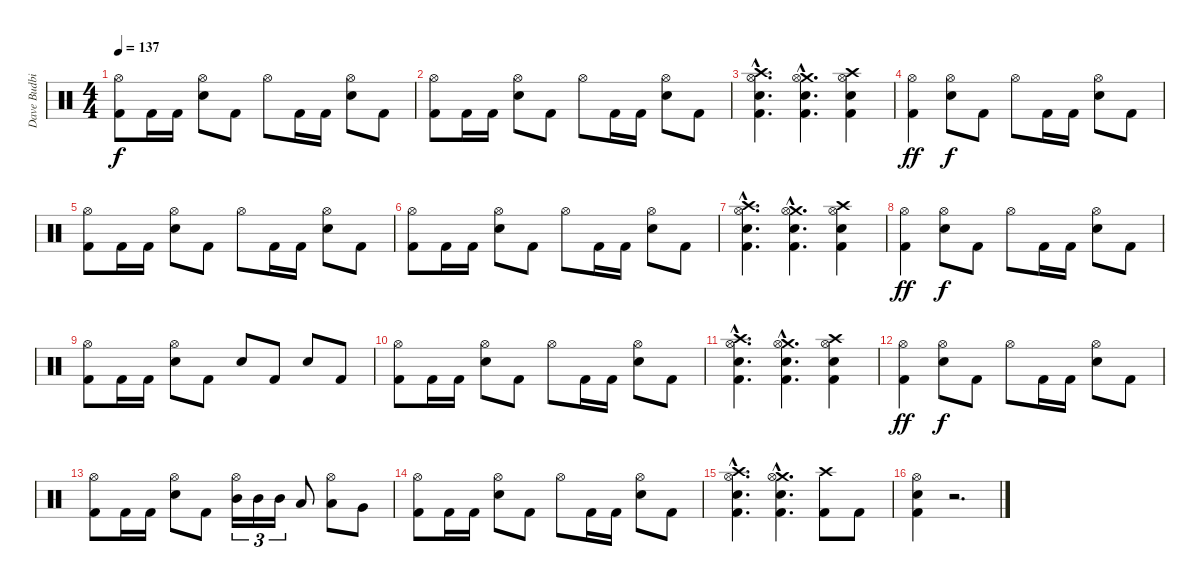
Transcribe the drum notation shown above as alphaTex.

\track ("Dave Budbill" "Dave Budbi") {instrument percussion}
\staff {score}
\articulation defaults
\ts (4 4)
\tempo 137
\clef neutral
\ks c
("Hi-Hat (open)" "Kick (hit) 2").8{dy f} "Kick (hit) 2".16 "Kick (hit) 2".16 ("Hi-Hat (open)" "Electric Snare (hit)").8 "Kick (hit) 2".8 "Hi-Hat (open)".8 "Kick (hit) 2".16 "Kick (hit) 2".16 ("Hi-Hat (open)" "Electric Snare (hit)").8 "Kick (hit) 2".8 |
("Hi-Hat (open)" "Kick (hit) 2").8 "Kick (hit) 2".16 "Kick (hit) 2".16 ("Hi-Hat (open)" "Electric Snare (hit)").8 "Kick (hit) 2".8 "Hi-Hat (open)".8 "Kick (hit) 2".16 "Kick (hit) 2".16 ("Hi-Hat (open)" "Electric Snare (hit)").8 "Kick (hit) 2".8 |
("Snare (hit) 2"{hac} "Crash high (hit)"{hac} "Hi-Hat (open)"{hac} "Kick (hit) 2"{hac}).4{d} ("Snare (hit) 2"{hac} "Crash medium (hit)"{hac} "Hi-Hat (open)"{hac} "Kick (hit) 2"{hac}).4{d} ("Snare (hit) 2" "Crash high (hit)" "Hi-Hat (open)" "Kick (hit) 2").4 |
("Hi-Hat (open)" "Kick (hit) 2").4{dy ff} ("Hi-Hat (open)" "Electric Snare (hit)").8{dy f} "Kick (hit) 2".8 "Hi-Hat (open)".8 "Kick (hit) 2".16 "Kick (hit) 2".16 ("Hi-Hat (open)" "Electric Snare (hit)").8 "Kick (hit) 2".8 |
("Hi-Hat (open)" "Kick (hit) 2").8 "Kick (hit) 2".16 "Kick (hit) 2".16 ("Hi-Hat (open)" "Electric Snare (hit)").8 "Kick (hit) 2".8 "Hi-Hat (open)".8 "Kick (hit) 2".16 "Kick (hit) 2".16 ("Hi-Hat (open)" "Electric Snare (hit)").8 "Kick (hit) 2".8 |
("Hi-Hat (open)" "Kick (hit) 2").8 "Kick (hit) 2".16 "Kick (hit) 2".16 ("Hi-Hat (open)" "Electric Snare (hit)").8 "Kick (hit) 2".8 "Hi-Hat (open)".8 "Kick (hit) 2".16 "Kick (hit) 2".16 ("Hi-Hat (open)" "Electric Snare (hit)").8 "Kick (hit) 2".8 |
("Snare (hit) 2"{hac} "Crash high (hit)"{hac} "Hi-Hat (open)"{hac} "Kick (hit) 2"{hac}).4{d} ("Snare (hit) 2"{hac} "Crash medium (hit)"{hac} "Hi-Hat (open)"{hac} "Kick (hit) 2"{hac}).4{d} ("Snare (hit) 2" "Crash high (hit)" "Hi-Hat (open)" "Kick (hit) 2").4 |
("Hi-Hat (open)" "Kick (hit) 2").4{dy ff} ("Hi-Hat (open)" "Electric Snare (hit)").8{dy f} "Kick (hit) 2".8 "Hi-Hat (open)".8 "Kick (hit) 2".16 "Kick (hit) 2".16 ("Hi-Hat (open)" "Electric Snare (hit)").8 "Kick (hit) 2".8 |
("Hi-Hat (open)" "Kick (hit) 2").8 "Kick (hit) 2".16 "Kick (hit) 2".16 ("Hi-Hat (open)" "Electric Snare (hit)").8 "Kick (hit) 2".8 "Electric Snare (hit)".8 "Kick (hit) 2".8 "Electric Snare (hit)".8 "Kick (hit) 2".8 |
("Hi-Hat (open)" "Kick (hit) 2").8 "Kick (hit) 2".16 "Kick (hit) 2".16 ("Hi-Hat (open)" "Electric Snare (hit)").8 "Kick (hit) 2".8 "Hi-Hat (open)".8 "Kick (hit) 2".16 "Kick (hit) 2".16 ("Hi-Hat (open)" "Electric Snare (hit)").8 "Kick (hit) 2".8 |
("Snare (hit) 2"{hac} "Crash high (hit)"{hac} "Hi-Hat (open)"{hac} "Kick (hit) 2"{hac}).4{d} ("Snare (hit) 2"{hac} "Crash medium (hit)"{hac} "Hi-Hat (open)"{hac} "Kick (hit) 2"{hac}).4{d} ("Snare (hit) 2" "Crash high (hit)" "Hi-Hat (open)" "Kick (hit) 2").4 |
("Hi-Hat (open)" "Kick (hit) 2").4{dy ff} ("Hi-Hat (open)" "Electric Snare (hit)").8{dy f} "Kick (hit) 2".8 "Hi-Hat (open)".8 "Kick (hit) 2".16 "Kick (hit) 2".16 ("Hi-Hat (open)" "Electric Snare (hit)").8 "Kick (hit) 2".8 |
("Hi-Hat (open)" "Kick (hit) 2").8 "Kick (hit) 2".16 "Kick (hit) 2".16 ("Hi-Hat (open)" "Electric Snare (hit)").8 "Kick (hit) 2".8 ("Hi-Hat (open)" "Mid Tom (hit)").16{tu (3 2)} "Mid Tom (hit)".16{tu (3 2)} "Mid Tom (hit)".16{tu (3 2)} "Low Tom (hit)".8 ("Hi-Hat (open)" "Low Tom (hit)").8 "Very Low Tom (hit)".8 |
("Hi-Hat (open)" "Kick (hit) 2").8 "Kick (hit) 2".16 "Kick (hit) 2".16 ("Hi-Hat (open)" "Electric Snare (hit)").8 "Kick (hit) 2".8 "Hi-Hat (open)".8 "Kick (hit) 2".16 "Kick (hit) 2".16 ("Hi-Hat (open)" "Electric Snare (hit)").8 "Kick (hit) 2".8 |
("Snare (hit) 2"{hac} "Crash high (hit)"{hac} "Hi-Hat (open)"{hac} "Kick (hit) 2"{hac}).4{d} ("Snare (hit) 2"{hac} "Crash medium (hit)"{hac} "Hi-Hat (open)"{hac} "Kick (hit) 2"{hac}).4{d} ("Crash high (hit)" "Kick (hit) 2").8 "Kick (hit) 2".8 |
("Electric Snare (hit)" "Hi-Hat (open)" "Kick (hit) 2").4 r.2{d}
